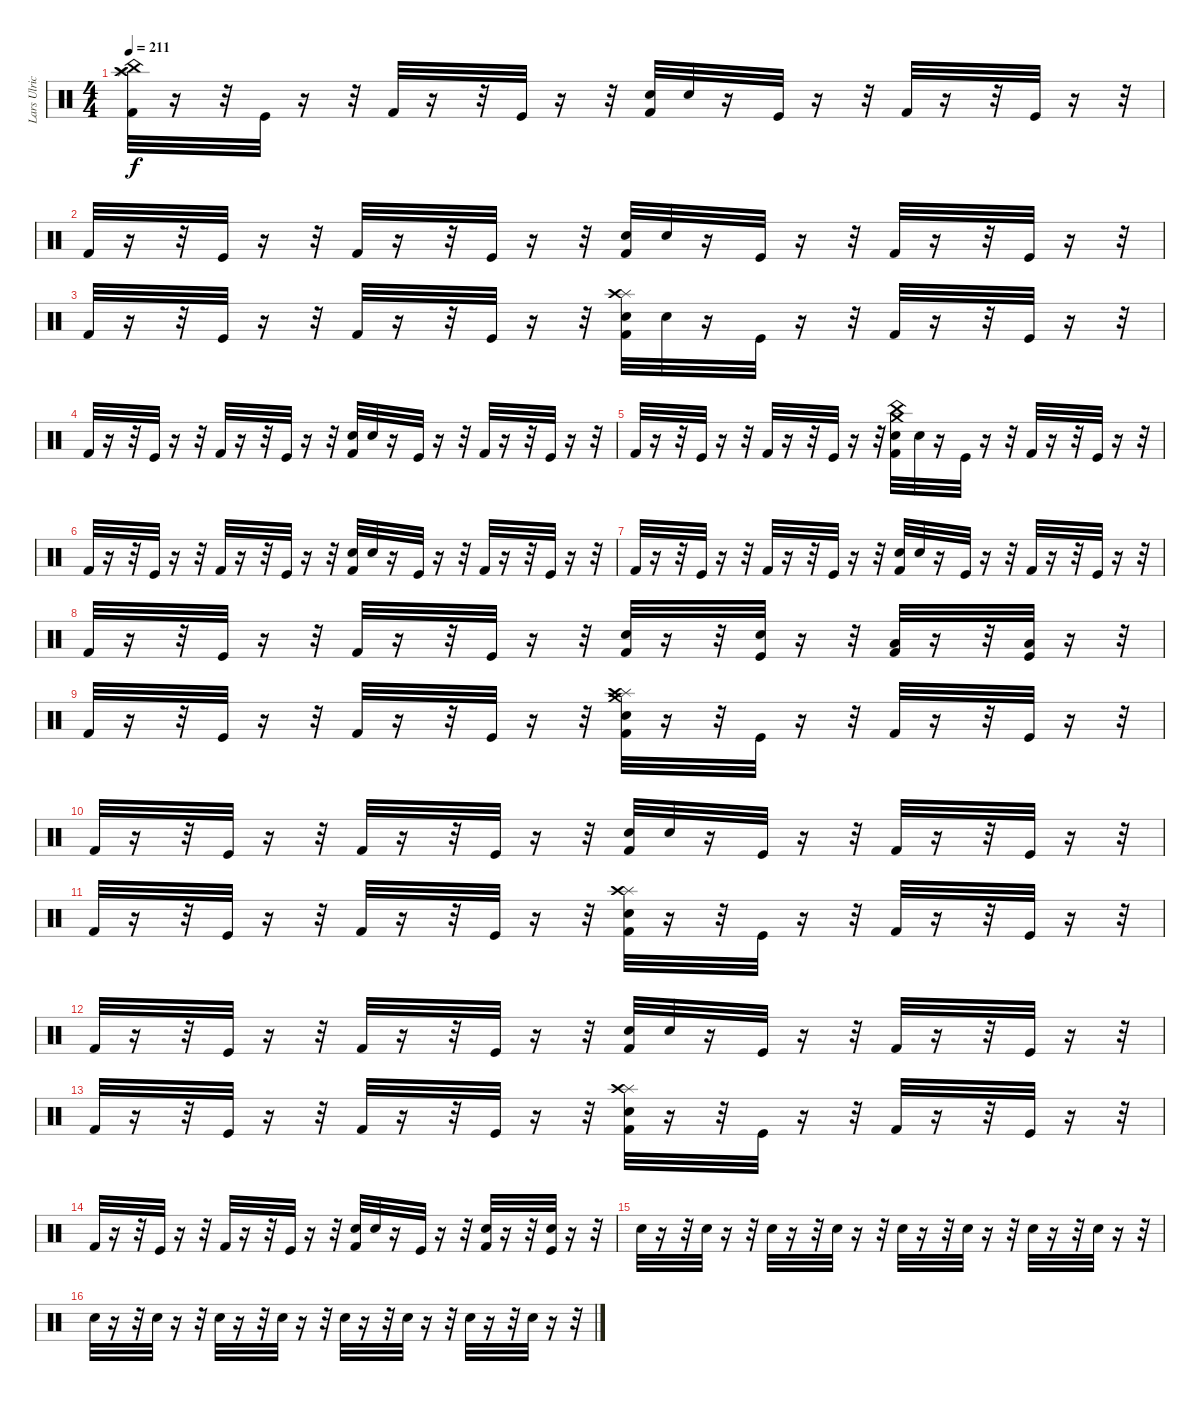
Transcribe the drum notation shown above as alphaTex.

\track ("Lars Ulrich (Drums)" "Lars Ulric") {instrument percussion}
\staff {score}
\articulation defaults
\ts (4 4)
\tempo 211
\clef neutral
\ks c
("China (hit)" "Crash high (hit)" "Splash (hit)" "Kick (hit) 2").32{dy f} r.16 r.32 "Kick (hit)".32 r.16 r.32 "Kick (hit) 2".32 r.16 r.32 "Kick (hit)".32 r.16 r.32 ("Snare (hit) 2" "Kick (hit) 2").32 "Snare (hit) 2".32 r.16 "Kick (hit)".32 r.16 r.32 "Kick (hit) 2".32 r.16 r.32 "Kick (hit)".32 r.16 r.32 |
"Kick (hit) 2".32 r.16 r.32 "Kick (hit)".32 r.16 r.32 "Kick (hit) 2".32 r.16 r.32 "Kick (hit)".32 r.16 r.32 ("Snare (hit) 2" "Kick (hit) 2").32 "Snare (hit) 2".32 r.16 "Kick (hit)".32 r.16 r.32 "Kick (hit) 2".32 r.16 r.32 "Kick (hit)".32 r.16 r.32 |
"Kick (hit) 2".32 r.16 r.32 "Kick (hit)".32 r.16 r.32 "Kick (hit) 2".32 r.16 r.32 "Kick (hit)".32 r.16 r.32 ("Splash (hit)" "Crash high (hit)" "Snare (hit) 2" "Kick (hit) 2").32 "Snare (hit) 2".32 r.16 "Kick (hit)".32 r.16 r.32 "Kick (hit) 2".32 r.16 r.32 "Kick (hit)".32 r.16 r.32 |
"Kick (hit) 2".32 r.16 r.32 "Kick (hit)".32 r.16 r.32 "Kick (hit) 2".32 r.16 r.32 "Kick (hit)".32 r.16 r.32 ("Snare (hit) 2" "Kick (hit) 2").32 "Snare (hit) 2".32 r.16 "Kick (hit)".32 r.16 r.32 "Kick (hit) 2".32 r.16 r.32 "Kick (hit)".32 r.16 r.32 |
"Kick (hit) 2".32 r.16 r.32 "Kick (hit)".32 r.16 r.32 "Kick (hit) 2".32 r.16 r.32 "Kick (hit)".32 r.16 r.32 ("China (hit)" "Crash medium (hit)" "Snare (hit) 2" "Kick (hit) 2").32 "Snare (hit) 2".32 r.16 "Kick (hit)".32 r.16 r.32 "Kick (hit) 2".32 r.16 r.32 "Kick (hit)".32 r.16 r.32 |
"Kick (hit) 2".32 r.16 r.32 "Kick (hit)".32 r.16 r.32 "Kick (hit) 2".32 r.16 r.32 "Kick (hit)".32 r.16 r.32 ("Snare (hit) 2" "Kick (hit) 2").32 "Snare (hit) 2".32 r.16 "Kick (hit)".32 r.16 r.32 "Kick (hit) 2".32 r.16 r.32 "Kick (hit)".32 r.16 r.32 |
"Kick (hit) 2".32 r.16 r.32 "Kick (hit)".32 r.16 r.32 "Kick (hit) 2".32 r.16 r.32 "Kick (hit)".32 r.16 r.32 ("Snare (hit) 2" "Kick (hit) 2").32 "Snare (hit) 2".32 r.16 "Kick (hit)".32 r.16 r.32 "Kick (hit) 2".32 r.16 r.32 "Kick (hit)".32 r.16 r.32 |
"Kick (hit) 2".32 r.16 r.32 "Kick (hit)".32 r.16 r.32 "Kick (hit) 2".32 r.16 r.32 "Kick (hit)".32 r.16 r.32 ("Snare (hit) 2" "Kick (hit) 2").32 r.16 r.32 ("Snare (hit) 2" "Kick (hit)").32 r.16 r.32 ("Low Tom (hit)" "Kick (hit) 2").32 r.16 r.32 ("Low Floor Tom (hit)" "Kick (hit)").32 r.16 r.32 |
"Kick (hit) 2".32 r.16 r.32 "Kick (hit)".32 r.16 r.32 "Kick (hit) 2".32 r.16 r.32 "Kick (hit)".32 r.16 r.32 ("Crash medium (hit)" "Splash (hit)" "Crash high (hit)" "Snare (hit) 2" "Kick (hit) 2").32 r.16 r.32 "Kick (hit)".32 r.16 r.32 "Kick (hit) 2".32 r.16 r.32 "Kick (hit)".32 r.16 r.32 |
"Kick (hit) 2".32 r.16 r.32 "Kick (hit)".32 r.16 r.32 "Kick (hit) 2".32 r.16 r.32 "Kick (hit)".32 r.16 r.32 ("Snare (hit) 2" "Kick (hit) 2").32 "Snare (hit) 2".32 r.16 "Kick (hit)".32 r.16 r.32 "Kick (hit) 2".32 r.16 r.32 "Kick (hit)".32 r.16 r.32 |
"Kick (hit) 2".32 r.16 r.32 "Kick (hit)".32 r.16 r.32 "Kick (hit) 2".32 r.16 r.32 "Kick (hit)".32 r.16 r.32 ("Splash (hit)" "Crash high (hit)" "Snare (hit) 2" "Kick (hit) 2").32 r.16 r.32 "Kick (hit)".32 r.16 r.32 "Kick (hit) 2".32 r.16 r.32 "Kick (hit)".32 r.16 r.32 |
"Kick (hit) 2".32 r.16 r.32 "Kick (hit)".32 r.16 r.32 "Kick (hit) 2".32 r.16 r.32 "Kick (hit)".32 r.16 r.32 ("Snare (hit) 2" "Kick (hit) 2").32 "Snare (hit) 2".32 r.16 "Kick (hit)".32 r.16 r.32 "Kick (hit) 2".32 r.16 r.32 "Kick (hit)".32 r.16 r.32 |
"Kick (hit) 2".32 r.16 r.32 "Kick (hit)".32 r.16 r.32 "Kick (hit) 2".32 r.16 r.32 "Kick (hit)".32 r.16 r.32 ("Splash (hit)" "Crash high (hit)" "Snare (hit) 2" "Kick (hit) 2").32 r.16 r.32 "Kick (hit)".32 r.16 r.32 "Kick (hit) 2".32 r.16 r.32 "Kick (hit)".32 r.16 r.32 |
"Kick (hit) 2".32 r.16 r.32 "Kick (hit)".32 r.16 r.32 "Kick (hit) 2".32 r.16 r.32 "Kick (hit)".32 r.16 r.32 ("Snare (hit) 2" "Kick (hit) 2").32 "Snare (hit) 2".32 r.16 "Kick (hit)".32 r.16 r.32 ("Snare (hit) 2" "Kick (hit) 2").32 r.16 r.32 ("Snare (hit) 2" "Kick (hit)").32 r.16 r.32 |
"Snare (hit) 2".32 r.16 r.32 "Snare (hit) 2".32 r.16 r.32 "Snare (hit) 2".32 r.16 r.32 "Snare (hit) 2".32 r.16 r.32 "Snare (hit) 2".32 r.16 r.32 "Snare (hit) 2".32 r.16 r.32 "Snare (hit) 2".32 r.16 r.32 "Snare (hit) 2".32 r.16 r.32 |
"Snare (hit) 2".32 r.16 r.32 "Snare (hit) 2".32 r.16 r.32 "Snare (hit) 2".32 r.16 r.32 "Snare (hit) 2".32 r.16 r.32 "Snare (hit) 2".32 r.16 r.32 "Snare (hit) 2".32 r.16 r.32 "Snare (hit) 2".32 r.16 r.32 "Snare (hit) 2".32 r.16 r.32
